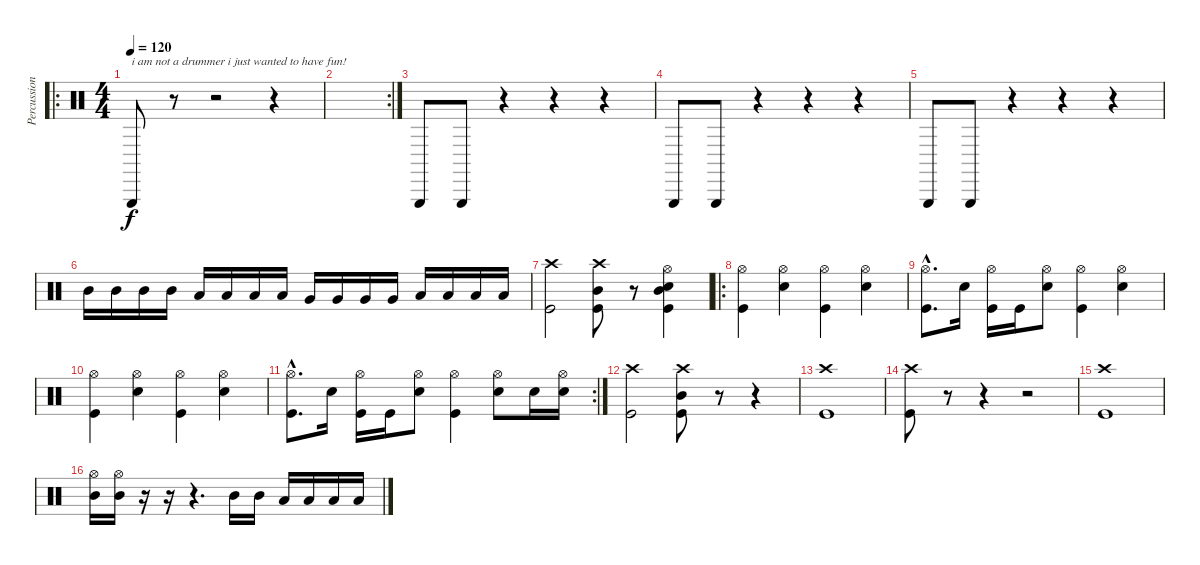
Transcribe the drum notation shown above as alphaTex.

\track ("Percussion" "Percussion") {instrument percussion}
\staff {score}
\articulation defaults
\ro
\ts (4 4)
\tempo 120
\clef neutral
\ks c "Triangle (hit)".8{txt "i am not a drummer i just wanted to have fun! " dy f}
r.8 r.2 r.4 |
\rc 2
|
"Triangle (hit)".8 "Triangle (hit)".8 r.4 r.4 r.4 |
"Triangle (hit)".8 "Triangle (hit)".8 r.4 r.4 r.4 |
"Triangle (hit)".8 "Triangle (hit)".8 r.4 r.4 r.4 |
"Mid Tom (hit)".16 "Mid Tom (hit)".16 "Mid Tom (hit)".16 "Mid Tom (hit)".16 "Low Tom (hit)".16 "Low Tom (hit)".16 "Low Tom (hit)".16 "Low Tom (hit)".16 "Very Low Tom (hit)".16 "Very Low Tom (hit)".16 "Very Low Tom (hit)".16 "Very Low Tom (hit)".16 "Low Floor Tom (hit)".16 "Low Floor Tom (hit)".16 "Low Floor Tom (hit)".16 "Low Floor Tom (hit)".16 |
("Kick (hit)" "Crash high (hit)").2 ("Mid Tom (hit)" "Kick (hit)" "Crash high (hit)").8 r.8 ("Mid Tom (hit)" "Kick (hit)" "Snare (hit) 2" "Hi-Hat (open)").4 |
\ro
("Hi-Hat (open)" "Kick (hit)").4 ("Hi-Hat (open)" "Snare (hit) 2").4 ("Hi-Hat (open)" "Kick (hit)").4 ("Hi-Hat (open)" "Snare (hit) 2").4 |
("Hi-Hat (open)"{hac} "Kick (hit)"{hac}).8{d} "Snare (hit) 2".16 ("Hi-Hat (open)" "Kick (hit)").16 "Kick (hit)".16 ("Hi-Hat (open)" "Snare (hit) 2").8 ("Hi-Hat (open)" "Kick (hit)").4 ("Hi-Hat (open)" "Snare (hit) 2").4 |
("Hi-Hat (open)" "Kick (hit)").4 ("Hi-Hat (open)" "Snare (hit) 2").4 ("Hi-Hat (open)" "Kick (hit)").4 ("Hi-Hat (open)" "Snare (hit) 2").4 |
\rc 2
("Hi-Hat (open)"{hac} "Kick (hit)"{hac}).8{d} "Snare (hit) 2".16 ("Hi-Hat (open)" "Kick (hit)").16 "Kick (hit)".16 ("Hi-Hat (open)" "Snare (hit) 2").8 ("Hi-Hat (open)" "Kick (hit)").4 ("Hi-Hat (open)" "Snare (hit) 2").8 "Snare (hit) 2".16 ("Hi-Hat (open)" "Snare (hit) 2").16 |
("Kick (hit)" "Crash high (hit)").2 ("Mid Tom (hit)" "Kick (hit)" "Crash high (hit)").8 r.8 r.4 |
("Kick (hit)" "Crash high (hit)").1 |
("Kick (hit)" "Crash high (hit)").8 r.8 r.4 r.2 |
("Kick (hit)" "Crash high (hit)").1 |
("Hi-Hat (open)" "Mid Tom (hit)").16 ("Hi-Hat (open)" "Mid Tom (hit)").16 r.16 r.16 r.4{d} "Mid Tom (hit)".16 "Mid Tom (hit)".16 "Low Tom (hit)".16 "Low Tom (hit)".16 "Low Tom (hit)".16 "Low Tom (hit)".16
